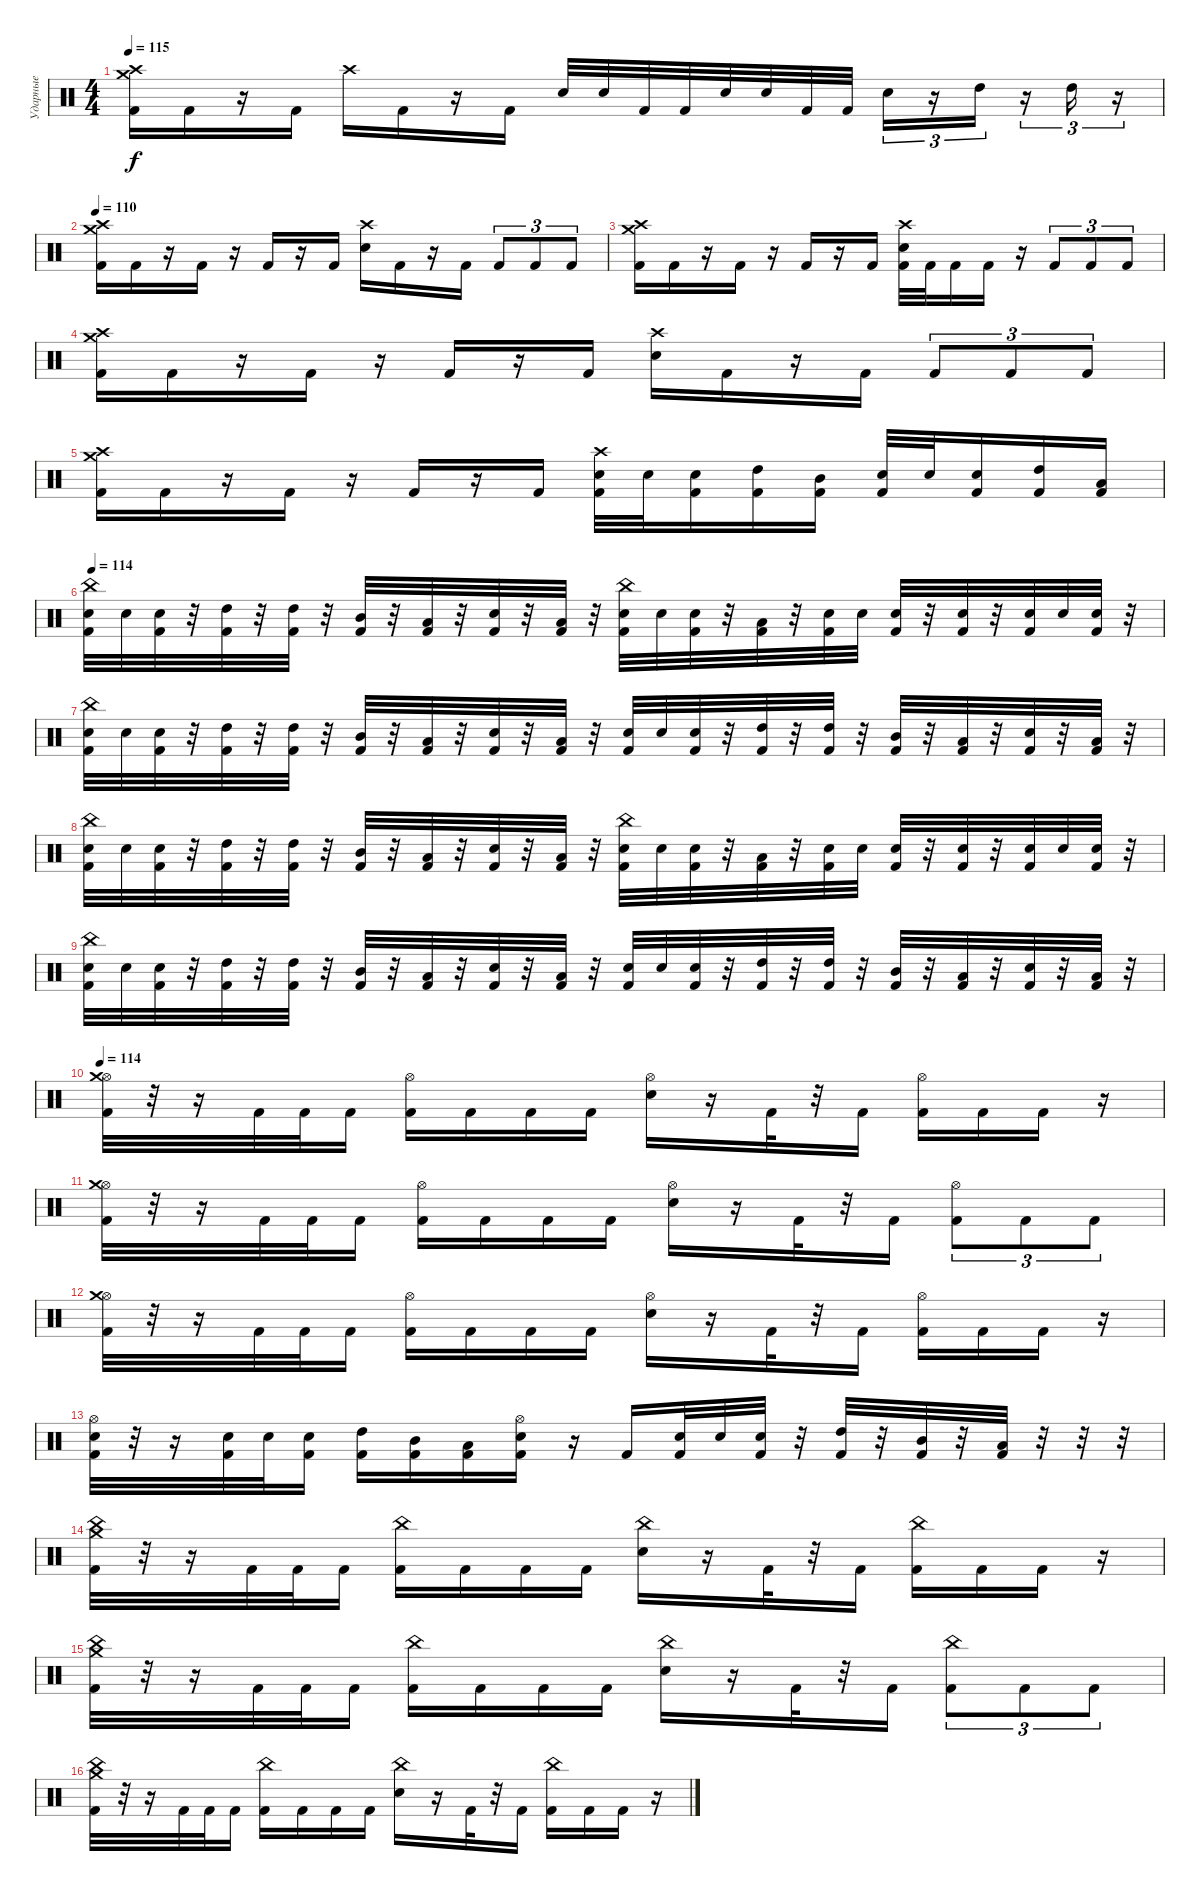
\track ("Ударные" "Ударные") {instrument percussion}
\staff {score}
\articulation defaults
\ts (4 4)
\tempo 115
\clef neutral
\ks c
("Crash high (hit)" "Crash medium (hit)" "Kick (hit) 2").16{dy f} "Kick (hit) 2".16 r.16 "Kick (hit) 2".16 "Crash high (hit)".16 "Kick (hit) 2".16 r.16 "Kick (hit) 2".16 "Electric Snare (hit)".32 "Electric Snare (hit)".32 "Kick (hit) 2".32 "Kick (hit) 2".32 "Electric Snare (hit)".32 "Electric Snare (hit)".32 "Kick (hit) 2".32 "Kick (hit) 2".32 "Electric Snare (hit)".16{tu (3 2)} r.16{tu (3 2)} "High Tom (hit)".16{tu (3 2)} r.16{tu (3 2)} "High Tom (hit)".16{tu (3 2)} r.16{tu (3 2)} |
\tempo 110
("Crash high (hit)" "Crash medium (hit)" "Kick (hit) 2").16 "Kick (hit) 2".16 r.16 "Kick (hit) 2".16 r.16 "Kick (hit) 2".16 r.16 "Kick (hit) 2".16 ("Crash high (hit)" "Electric Snare (hit)").16 "Kick (hit) 2".16 r.16 "Kick (hit) 2".16 "Kick (hit) 2".8{tu (3 2)} "Kick (hit) 2".8{tu (3 2)} "Kick (hit) 2".8{tu (3 2)} |
("Crash high (hit)" "Crash medium (hit)" "Kick (hit) 2").16 "Kick (hit) 2".16 r.16 "Kick (hit) 2".16 r.16 "Kick (hit) 2".16 r.16 "Kick (hit) 2".16 ("Crash high (hit)" "Electric Snare (hit)" "Kick (hit) 2").32 "Kick (hit) 2".32 "Kick (hit) 2".16 "Kick (hit) 2".16 r.16 "Kick (hit) 2".8{tu (3 2)} "Kick (hit) 2".8{tu (3 2)} "Kick (hit) 2".8{tu (3 2)} |
("Crash high (hit)" "Crash medium (hit)" "Kick (hit) 2").16 "Kick (hit) 2".16 r.16 "Kick (hit) 2".16 r.16 "Kick (hit) 2".16 r.16 "Kick (hit) 2".16 ("Crash high (hit)" "Electric Snare (hit)").16 "Kick (hit) 2".16 r.16 "Kick (hit) 2".16 "Kick (hit) 2".8{tu (3 2)} "Kick (hit) 2".8{tu (3 2)} "Kick (hit) 2".8{tu (3 2)} |
("Crash high (hit)" "Crash medium (hit)" "Kick (hit) 2").16 "Kick (hit) 2".16 r.16 "Kick (hit) 2".16 r.16 "Kick (hit) 2".16 r.16 "Kick (hit) 2".16 ("Crash high (hit)" "Electric Snare (hit)" "Kick (hit) 2").32 "Electric Snare (hit)".32 ("Electric Snare (hit)" "Kick (hit) 2").16 ("High Tom (hit)" "Kick (hit) 2").16 ("Mid Tom (hit)" "Kick (hit) 2").16 ("Electric Snare (hit)" "Kick (hit) 2").32 "Electric Snare (hit)".32 ("Electric Snare (hit)" "Kick (hit) 2").16 ("High Tom (hit)" "Kick (hit) 2").16 ("Low Tom (hit)" "Kick (hit) 2").16 |
\tempo 114
("China (hit)" "Electric Snare (hit)" "Kick (hit) 2").32 "Electric Snare (hit)".32 ("Electric Snare (hit)" "Kick (hit) 2").32 r.32 ("High Tom (hit)" "Kick (hit) 2").32 r.32 ("High Tom (hit)" "Kick (hit) 2").32 r.32 ("Mid Tom (hit)" "Kick (hit) 2").32 r.32 ("Low Tom (hit)" "Kick (hit) 2").32 r.32 ("Electric Snare (hit)" "Kick (hit) 2").32 r.32 ("Low Tom (hit)" "Kick (hit) 2").32 r.32 ("China (hit)" "Electric Snare (hit)" "Kick (hit) 2").32 "Electric Snare (hit)".32 ("Electric Snare (hit)" "Kick (hit) 2").32 r.32 ("Low Tom (hit)" "Kick (hit) 2").32 r.32 ("Electric Snare (hit)" "Kick (hit) 2").32 "Electric Snare (hit)".32 ("Electric Snare (hit)" "Kick (hit) 2").32 r.32 ("Electric Snare (hit)" "Kick (hit) 2").32 r.32 ("Electric Snare (hit)" "Kick (hit) 2").32 "Electric Snare (hit)".32 ("Electric Snare (hit)" "Kick (hit) 2").32 r.32 |
("China (hit)" "Electric Snare (hit)" "Kick (hit) 2").32 "Electric Snare (hit)".32 ("Electric Snare (hit)" "Kick (hit) 2").32 r.32 ("High Tom (hit)" "Kick (hit) 2").32 r.32 ("High Tom (hit)" "Kick (hit) 2").32 r.32 ("Mid Tom (hit)" "Kick (hit) 2").32 r.32 ("Low Tom (hit)" "Kick (hit) 2").32 r.32 ("Electric Snare (hit)" "Kick (hit) 2").32 r.32 ("Low Tom (hit)" "Kick (hit) 2").32 r.32 ("Electric Snare (hit)" "Kick (hit) 2").32 "Electric Snare (hit)".32 ("Electric Snare (hit)" "Kick (hit) 2").32 r.32 ("High Tom (hit)" "Kick (hit) 2").32 r.32 ("High Tom (hit)" "Kick (hit) 2").32 r.32 ("Mid Tom (hit)" "Kick (hit) 2").32 r.32 ("Low Tom (hit)" "Kick (hit) 2").32 r.32 ("Electric Snare (hit)" "Kick (hit) 2").32 r.32 ("Low Tom (hit)" "Kick (hit) 2").32 r.32 |
("China (hit)" "Electric Snare (hit)" "Kick (hit) 2").32 "Electric Snare (hit)".32 ("Electric Snare (hit)" "Kick (hit) 2").32 r.32 ("High Tom (hit)" "Kick (hit) 2").32 r.32 ("High Tom (hit)" "Kick (hit) 2").32 r.32 ("Mid Tom (hit)" "Kick (hit) 2").32 r.32 ("Low Tom (hit)" "Kick (hit) 2").32 r.32 ("Electric Snare (hit)" "Kick (hit) 2").32 r.32 ("Low Tom (hit)" "Kick (hit) 2").32 r.32 ("China (hit)" "Electric Snare (hit)" "Kick (hit) 2").32 "Electric Snare (hit)".32 ("Electric Snare (hit)" "Kick (hit) 2").32 r.32 ("Low Tom (hit)" "Kick (hit) 2").32 r.32 ("Electric Snare (hit)" "Kick (hit) 2").32 "Electric Snare (hit)".32 ("Electric Snare (hit)" "Kick (hit) 2").32 r.32 ("Electric Snare (hit)" "Kick (hit) 2").32 r.32 ("Electric Snare (hit)" "Kick (hit) 2").32 "Electric Snare (hit)".32 ("Electric Snare (hit)" "Kick (hit) 2").32 r.32 |
("China (hit)" "Electric Snare (hit)" "Kick (hit) 2").32 "Electric Snare (hit)".32 ("Electric Snare (hit)" "Kick (hit) 2").32 r.32 ("High Tom (hit)" "Kick (hit) 2").32 r.32 ("High Tom (hit)" "Kick (hit) 2").32 r.32 ("Mid Tom (hit)" "Kick (hit) 2").32 r.32 ("Low Tom (hit)" "Kick (hit) 2").32 r.32 ("Electric Snare (hit)" "Kick (hit) 2").32 r.32 ("Low Tom (hit)" "Kick (hit) 2").32 r.32 ("Electric Snare (hit)" "Kick (hit) 2").32 "Electric Snare (hit)".32 ("Electric Snare (hit)" "Kick (hit) 2").32 r.32 ("High Tom (hit)" "Kick (hit) 2").32 r.32 ("High Tom (hit)" "Kick (hit) 2").32 r.32 ("Mid Tom (hit)" "Kick (hit) 2").32 r.32 ("Low Tom (hit)" "Kick (hit) 2").32 r.32 ("Electric Snare (hit)" "Kick (hit) 2").32 r.32 ("Low Tom (hit)" "Kick (hit) 2").32 r.32 |
\tempo 114
("Hi-Hat (open)" "Crash medium (hit)" "Kick (hit) 2").32 r.32 r.16 "Kick (hit) 2".32 "Kick (hit) 2".32 "Kick (hit) 2".16 ("Hi-Hat (open)" "Kick (hit) 2").16 "Kick (hit) 2".16 "Kick (hit) 2".16 "Kick (hit) 2".16 ("Hi-Hat (open)" "Electric Snare (hit)").16 r.16 "Kick (hit) 2".32 r.32 "Kick (hit) 2".16 ("Hi-Hat (open)" "Kick (hit) 2").16 "Kick (hit) 2".16 "Kick (hit) 2".16 r.16 |
("Hi-Hat (open)" "Crash medium (hit)" "Kick (hit) 2").32 r.32 r.16 "Kick (hit) 2".32 "Kick (hit) 2".32 "Kick (hit) 2".16 ("Hi-Hat (open)" "Kick (hit) 2").16 "Kick (hit) 2".16 "Kick (hit) 2".16 "Kick (hit) 2".16 ("Hi-Hat (open)" "Electric Snare (hit)").16 r.16 "Kick (hit) 2".32 r.32 "Kick (hit) 2".16 ("Hi-Hat (open)" "Kick (hit) 2").8{tu (3 2)} "Kick (hit) 2".8{tu (3 2)} "Kick (hit) 2".8{tu (3 2)} |
("Hi-Hat (open)" "Crash medium (hit)" "Kick (hit) 2").32 r.32 r.16 "Kick (hit) 2".32 "Kick (hit) 2".32 "Kick (hit) 2".16 ("Hi-Hat (open)" "Kick (hit) 2").16 "Kick (hit) 2".16 "Kick (hit) 2".16 "Kick (hit) 2".16 ("Hi-Hat (open)" "Electric Snare (hit)").16 r.16 "Kick (hit) 2".32 r.32 "Kick (hit) 2".16 ("Hi-Hat (open)" "Kick (hit) 2").16 "Kick (hit) 2".16 "Kick (hit) 2".16 r.16 |
("Hi-Hat (open)" "Electric Snare (hit)" "Kick (hit) 2").32 r.32 r.16 ("Electric Snare (hit)" "Kick (hit) 2").32 "Electric Snare (hit)".32 ("Electric Snare (hit)" "Kick (hit) 2").16 ("High Tom (hit)" "Kick (hit) 2").16 ("Mid Tom (hit)" "Kick (hit) 2").16 ("Low Tom (hit)" "Kick (hit) 2").16 ("Hi-Hat (open)" "Electric Snare (hit)" "Kick (hit) 2").16 r.16 "Kick (hit) 2".16 ("Electric Snare (hit)" "Kick (hit) 2").32 "Electric Snare (hit)".32 ("Electric Snare (hit)" "Kick (hit) 2").32 r.32 ("High Tom (hit)" "Kick (hit) 2").32 r.32 ("Mid Tom (hit)" "Kick (hit) 2").32 r.32 ("Low Tom (hit)" "Kick (hit) 2").32 r.32 r.32 r.32 |
("China (hit)" "Crash medium (hit)" "Kick (hit) 2").32 r.32 r.16 "Kick (hit) 2".32 "Kick (hit) 2".32 "Kick (hit) 2".16 ("China (hit)" "Kick (hit) 2").16 "Kick (hit) 2".16 "Kick (hit) 2".16 "Kick (hit) 2".16 ("China (hit)" "Electric Snare (hit)").16 r.16 "Kick (hit) 2".32 r.32 "Kick (hit) 2".16 ("China (hit)" "Kick (hit) 2").16 "Kick (hit) 2".16 "Kick (hit) 2".16 r.16 |
("China (hit)" "Crash medium (hit)" "Kick (hit) 2").32 r.32 r.16 "Kick (hit) 2".32 "Kick (hit) 2".32 "Kick (hit) 2".16 ("China (hit)" "Kick (hit) 2").16 "Kick (hit) 2".16 "Kick (hit) 2".16 "Kick (hit) 2".16 ("China (hit)" "Electric Snare (hit)").16 r.16 "Kick (hit) 2".32 r.32 "Kick (hit) 2".16 ("China (hit)" "Kick (hit) 2").8{tu (3 2)} "Kick (hit) 2".8{tu (3 2)} "Kick (hit) 2".8{tu (3 2)} |
("China (hit)" "Crash medium (hit)" "Kick (hit) 2").32 r.32 r.16 "Kick (hit) 2".32 "Kick (hit) 2".32 "Kick (hit) 2".16 ("China (hit)" "Kick (hit) 2").16 "Kick (hit) 2".16 "Kick (hit) 2".16 "Kick (hit) 2".16 ("China (hit)" "Electric Snare (hit)").16 r.16 "Kick (hit) 2".32 r.32 "Kick (hit) 2".16 ("China (hit)" "Kick (hit) 2").16 "Kick (hit) 2".16 "Kick (hit) 2".16 r.16
